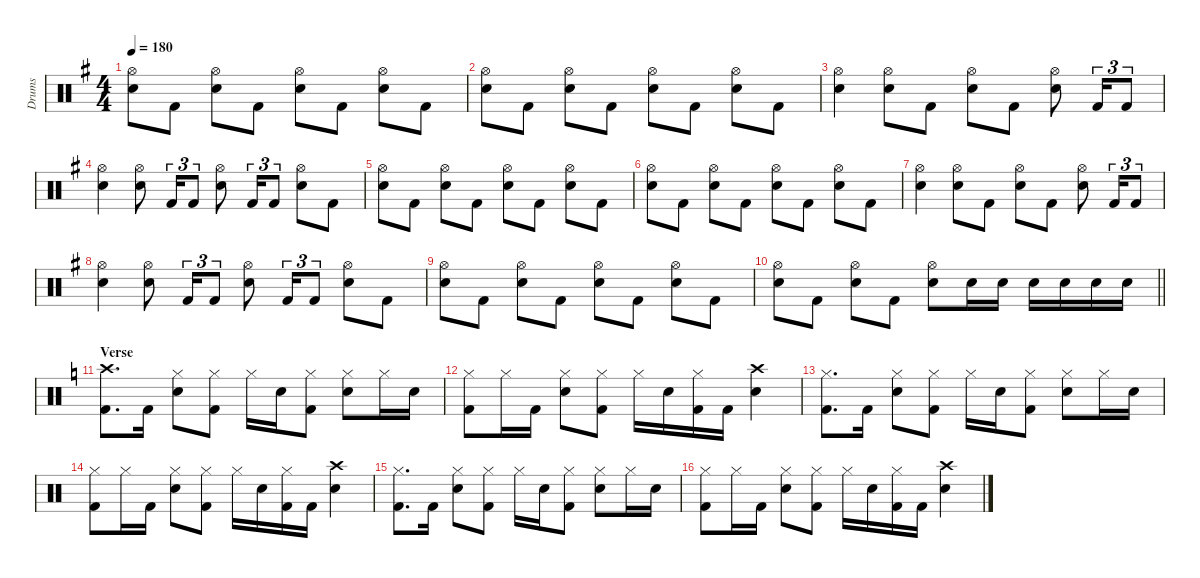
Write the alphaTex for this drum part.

\defaultSystemsLayout 4
\hideDynamics
\bracketExtendMode nobrackets
\firstSystemTrackNameMode fullname
\otherSystemsTrackNameOrientation horizontal
\track ("Drums" "drm.") {instrument percussion}
\staff {score}
\articulation defaults
\ts (4 4)
\tempo 180
\clef neutral
\ks g
("Hi-Hat (open)"{acc forcenatural} "Snare (hit) 2"{acc forcenatural}).8{dy f beam Down} "Kick (hit) 2"{acc forcenatural}.8{beam Down} ("Hi-Hat (open)"{acc forcenatural} "Snare (hit) 2"{acc forcenatural}).8{beam Down} "Kick (hit) 2"{acc forcenatural}.8{beam Down} ("Hi-Hat (open)"{acc forcenatural} "Snare (hit) 2"{acc forcenatural}).8{beam Down} "Kick (hit) 2"{acc forcenatural}.8{beam Down} ("Hi-Hat (open)"{acc forcenatural} "Snare (hit) 2"{acc forcenatural}).8{beam Down} "Kick (hit) 2"{acc forcenatural}.8{beam Down} |
("Hi-Hat (open)"{acc forcenatural} "Snare (hit) 2"{acc forcenatural}).8{beam Down} "Kick (hit) 2"{acc forcenatural}.8{beam Down} ("Hi-Hat (open)"{acc forcenatural} "Snare (hit) 2"{acc forcenatural}).8{beam Down} "Kick (hit) 2"{acc forcenatural}.8{beam Down} ("Hi-Hat (open)"{acc forcenatural} "Snare (hit) 2"{acc forcenatural}).8{beam Down} "Kick (hit) 2"{acc forcenatural}.8{beam Down} ("Hi-Hat (open)"{acc forcenatural} "Snare (hit) 2"{acc forcenatural}).8{beam Down} "Kick (hit) 2"{acc forcenatural}.8{beam Down} |
("Hi-Hat (open)"{acc forcenatural} "Snare (hit) 2"{acc forcenatural}).4{beam Down} ("Hi-Hat (open)"{acc forcenatural} "Snare (hit) 2"{acc forcenatural}).8{beam Down} "Kick (hit) 2"{acc forcenatural}.8{beam Down} ("Hi-Hat (open)"{acc forcenatural} "Snare (hit) 2"{acc forcenatural}).8{beam Down} "Kick (hit) 2"{acc forcenatural}.8{beam Down} ("Hi-Hat (open)"{acc forcenatural} "Snare (hit) 2"{acc forcenatural}).8{beam Down} "Kick (hit) 2"{acc forcenatural}.16{tu (3 2) beam Up} "Kick (hit) 2"{acc forcenatural}.8{tu (3 2) beam Up} |
("Hi-Hat (open)"{acc forcenatural} "Snare (hit) 2"{acc forcenatural}).4{beam Down} ("Hi-Hat (open)"{acc forcenatural} "Snare (hit) 2"{acc forcenatural}).8{beam Down} "Kick (hit) 2"{acc forcenatural}.16{tu (3 2) beam Up} "Kick (hit) 2"{acc forcenatural}.8{tu (3 2) beam Up} ("Hi-Hat (open)"{acc forcenatural} "Snare (hit) 2"{acc forcenatural}).8{beam Down} "Kick (hit) 2"{acc forcenatural}.16{tu (3 2) beam Up} "Kick (hit) 2"{acc forcenatural}.8{tu (3 2) beam Up} ("Hi-Hat (open)"{acc forcenatural} "Snare (hit) 2"{acc forcenatural}).8{beam Down} "Kick (hit) 2"{acc forcenatural}.8{beam Down} |
("Hi-Hat (open)"{acc forcenatural} "Snare (hit) 2"{acc forcenatural}).8{beam Down} "Kick (hit) 2"{acc forcenatural}.8{beam Down} ("Hi-Hat (open)"{acc forcenatural} "Snare (hit) 2"{acc forcenatural}).8{beam Down} "Kick (hit) 2"{acc forcenatural}.8{beam Down} ("Hi-Hat (open)"{acc forcenatural} "Snare (hit) 2"{acc forcenatural}).8{beam Down} "Kick (hit) 2"{acc forcenatural}.8{beam Down} ("Hi-Hat (open)"{acc forcenatural} "Snare (hit) 2"{acc forcenatural}).8{beam Down} "Kick (hit) 2"{acc forcenatural}.8{beam Down} |
("Hi-Hat (open)"{acc forcenatural} "Snare (hit) 2"{acc forcenatural}).8{beam Down} "Kick (hit) 2"{acc forcenatural}.8{beam Down} ("Hi-Hat (open)"{acc forcenatural} "Snare (hit) 2"{acc forcenatural}).8{beam Down} "Kick (hit) 2"{acc forcenatural}.8{beam Down} ("Hi-Hat (open)"{acc forcenatural} "Snare (hit) 2"{acc forcenatural}).8{beam Down} "Kick (hit) 2"{acc forcenatural}.8{beam Down} ("Hi-Hat (open)"{acc forcenatural} "Snare (hit) 2"{acc forcenatural}).8{beam Down} "Kick (hit) 2"{acc forcenatural}.8{beam Down} |
("Hi-Hat (open)"{acc forcenatural} "Snare (hit) 2"{acc forcenatural}).4{beam Down} ("Hi-Hat (open)"{acc forcenatural} "Snare (hit) 2"{acc forcenatural}).8{beam Down} "Kick (hit) 2"{acc forcenatural}.8{beam Down} ("Hi-Hat (open)"{acc forcenatural} "Snare (hit) 2"{acc forcenatural}).8{beam Down} "Kick (hit) 2"{acc forcenatural}.8{beam Down} ("Hi-Hat (open)"{acc forcenatural} "Snare (hit) 2"{acc forcenatural}).8{beam Down} "Kick (hit) 2"{acc forcenatural}.16{tu (3 2) beam Up} "Kick (hit) 2"{acc forcenatural}.8{tu (3 2) beam Up} |
("Hi-Hat (open)"{acc forcenatural} "Snare (hit) 2"{acc forcenatural}).4{beam Down} ("Hi-Hat (open)"{acc forcenatural} "Snare (hit) 2"{acc forcenatural}).8{beam Down} "Kick (hit) 2"{acc forcenatural}.16{tu (3 2) beam Up} "Kick (hit) 2"{acc forcenatural}.8{tu (3 2) beam Up} ("Hi-Hat (open)"{acc forcenatural} "Snare (hit) 2"{acc forcenatural}).8{beam Down} "Kick (hit) 2"{acc forcenatural}.16{tu (3 2) beam Up} "Kick (hit) 2"{acc forcenatural}.8{tu (3 2) beam Up} ("Hi-Hat (open)"{acc forcenatural} "Snare (hit) 2"{acc forcenatural}).8{beam Down} "Kick (hit) 2"{acc forcenatural}.8{beam Down} |
("Hi-Hat (open)"{acc forcenatural} "Snare (hit) 2"{acc forcenatural}).8{beam Down} "Kick (hit) 2"{acc forcenatural}.8{beam Down} ("Hi-Hat (open)"{acc forcenatural} "Snare (hit) 2"{acc forcenatural}).8{beam Down} "Kick (hit) 2"{acc forcenatural}.8{beam Down} ("Hi-Hat (open)"{acc forcenatural} "Snare (hit) 2"{acc forcenatural}).8{beam Down} "Kick (hit) 2"{acc forcenatural}.8{beam Down} ("Hi-Hat (open)"{acc forcenatural} "Snare (hit) 2"{acc forcenatural}).8{beam Down} "Kick (hit) 2"{acc forcenatural}.8{beam Down} |
\barLineRight lightlight
("Hi-Hat (open)"{acc forcenatural} "Snare (hit) 2"{acc forcenatural}).8{beam Down} "Kick (hit) 2"{acc forcenatural}.8{beam Down} ("Hi-Hat (open)"{acc forcenatural} "Snare (hit) 2"{acc forcenatural}).8{beam Down} "Kick (hit) 2"{acc forcenatural}.8{beam Down} ("Hi-Hat (open)"{acc forcenatural} "Snare (hit) 2"{acc forcenatural}).8{beam Down} "Snare (hit) 2"{acc forcenatural}.16{beam Down} "Snare (hit) 2"{acc forcenatural}.16{beam Down} "Snare (hit) 2"{acc forcenatural}.16{beam Down} "Snare (hit) 2"{acc forcenatural}.16{beam Down} "Snare (hit) 2"{acc forcenatural}.16{beam Down} "Snare (hit) 2"{acc forcenatural}.16{beam Down} |
\section ("" "Verse")
\ks c
("Crash high (hit)" "Kick (hit) 2").8{d beam Down} "Kick (hit) 2".16{beam Down} ("Hi-Hat (closed)" "Snare (hit) 2").8{beam Down} ("Hi-Hat (closed)" "Kick (hit) 2").8{beam Down} "Hi-Hat (closed)".16{beam Down} "Snare (hit) 2".16{dy p beam Down} ("Hi-Hat (closed)" "Kick (hit) 2").8{dy f beam Down} ("Hi-Hat (closed)" "Snare (hit) 2").8{beam Down} "Hi-Hat (closed)".16{beam Down} "Snare (hit) 2".16{beam Down} |
("Hi-Hat (closed)" "Kick (hit) 2").8{dy ff beam Down} "Hi-Hat (closed)".16{beam Down} "Kick (hit) 2".16{dy f beam Down} ("Hi-Hat (closed)" "Snare (hit) 2").8{beam Down} ("Hi-Hat (closed)" "Kick (hit) 2").8{beam Down} "Hi-Hat (closed)".16{beam Down} "Snare (hit) 2".16{dy p beam Down} ("Hi-Hat (closed)" "Kick (hit) 2").16{dy f beam Down} "Kick (hit) 2".16{beam Down} ("Crash high (hit)" "Snare (hit) 2").4{beam Down} |
("Hi-Hat (closed)" "Kick (hit) 2").8{d beam Down} "Kick (hit) 2".16{beam Down} ("Hi-Hat (closed)" "Snare (hit) 2").8{beam Down} ("Hi-Hat (closed)" "Kick (hit) 2").8{beam Down} "Hi-Hat (closed)".16{beam Down} "Snare (hit) 2".16{dy p beam Down} ("Hi-Hat (closed)" "Kick (hit) 2").8{dy f beam Down} ("Hi-Hat (closed)" "Snare (hit) 2").8{beam Down} "Hi-Hat (closed)".16{beam Down} "Snare (hit) 2".16{beam Down} |
("Hi-Hat (closed)" "Kick (hit) 2").8{dy ff beam Down} "Hi-Hat (closed)".16{beam Down} "Kick (hit) 2".16{dy f beam Down} ("Hi-Hat (closed)" "Snare (hit) 2").8{beam Down} ("Hi-Hat (closed)" "Kick (hit) 2").8{beam Down} "Hi-Hat (closed)".16{beam Down} "Snare (hit) 2".16{dy p beam Down} ("Hi-Hat (closed)" "Kick (hit) 2").16{dy f beam Down} "Kick (hit) 2".16{beam Down} ("Crash high (hit)" "Snare (hit) 2").4{beam Down} |
("Hi-Hat (closed)" "Kick (hit) 2").8{d beam Down} "Kick (hit) 2".16{beam Down} ("Hi-Hat (closed)" "Snare (hit) 2").8{beam Down} ("Hi-Hat (closed)" "Kick (hit) 2").8{beam Down} "Hi-Hat (closed)".16{beam Down} "Snare (hit) 2".16{dy p beam Down} ("Hi-Hat (closed)" "Kick (hit) 2").8{dy f beam Down} ("Hi-Hat (closed)" "Snare (hit) 2").8{beam Down} "Hi-Hat (closed)".16{beam Down} "Snare (hit) 2".16{beam Down} |
("Hi-Hat (closed)" "Kick (hit) 2").8{dy ff beam Down} "Hi-Hat (closed)".16{beam Down} "Kick (hit) 2".16{dy f beam Down} ("Hi-Hat (closed)" "Snare (hit) 2").8{beam Down} ("Hi-Hat (closed)" "Kick (hit) 2").8{beam Down} "Hi-Hat (closed)".16{beam Down} "Snare (hit) 2".16{dy p beam Down} ("Hi-Hat (closed)" "Kick (hit) 2").16{dy f beam Down} "Kick (hit) 2".16{beam Down} ("Crash high (hit)" "Snare (hit) 2").4{beam Down}
